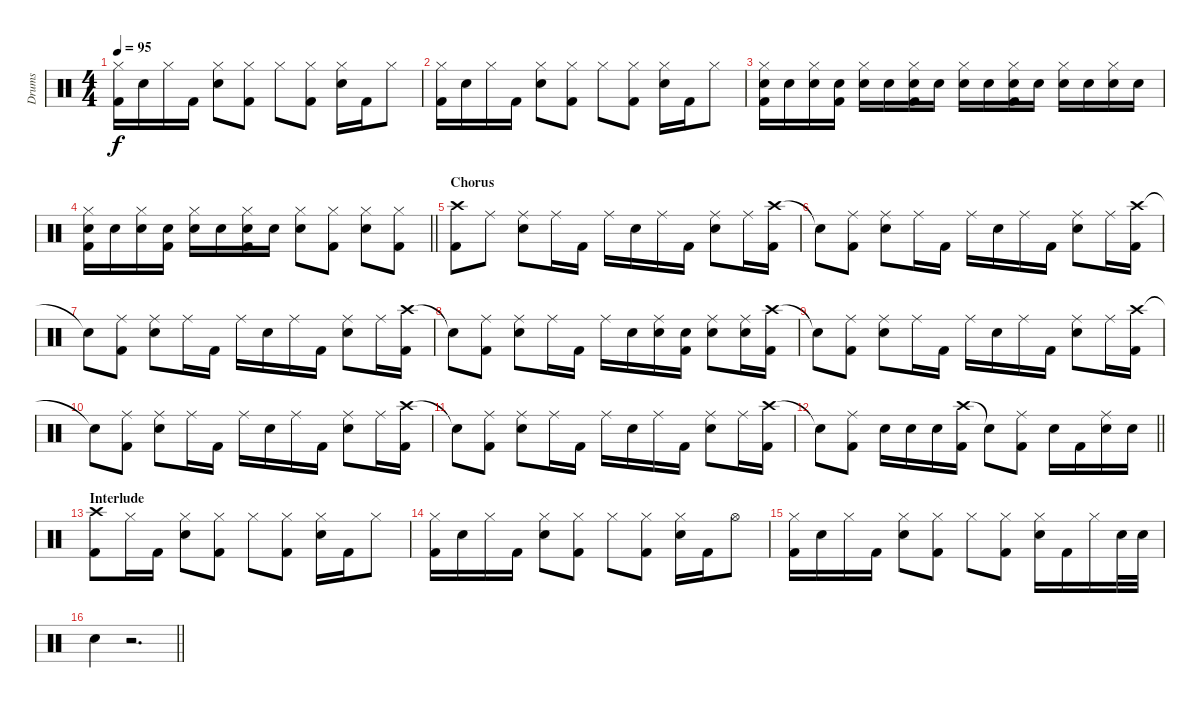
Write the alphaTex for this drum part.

\track ("Drums" "Drums") {instrument percussion}
\staff {score}
\articulation defaults
\ts (4 4)
\tempo 95
\clef neutral
\ks c
("Hi-Hat (closed)" "Kick (hit) 2").16{dy f} "Snare (hit) 2".16 "Hi-Hat (closed)".16 "Kick (hit) 2".16 ("Hi-Hat (closed)" "Snare (hit) 2").8 ("Hi-Hat (closed)" "Kick (hit) 2").8 "Hi-Hat (closed)".8 ("Hi-Hat (closed)" "Kick (hit) 2").8 ("Hi-Hat (closed)" "Snare (hit) 2").16 "Kick (hit) 2".16 "Hi-Hat (closed)".8 |
("Hi-Hat (closed)" "Kick (hit) 2").16 "Snare (hit) 2".16 "Hi-Hat (closed)".16 "Kick (hit) 2".16 ("Hi-Hat (closed)" "Snare (hit) 2").8 ("Hi-Hat (closed)" "Kick (hit) 2").8 "Hi-Hat (closed)".8 ("Hi-Hat (closed)" "Kick (hit) 2").8 ("Hi-Hat (closed)" "Snare (hit) 2").16 "Kick (hit) 2".16 "Hi-Hat (closed)".8 |
("Hi-Hat (closed)" "Snare (hit) 2" "Kick (hit) 2").16 "Snare (hit) 2".16 ("Hi-Hat (closed)" "Snare (hit) 2").16 ("Snare (hit) 2" "Kick (hit) 2").16 ("Hi-Hat (closed)" "Snare (hit) 2").16 "Snare (hit) 2".16 ("Hi-Hat (closed)" "Snare (hit) 2" "Kick (hit) 2").16 "Snare (hit) 2".16 ("Hi-Hat (closed)" "Snare (hit) 2").16 "Snare (hit) 2".16 ("Hi-Hat (closed)" "Snare (hit) 2" "Kick (hit) 2").16 "Snare (hit) 2".16 ("Hi-Hat (closed)" "Snare (hit) 2").16 "Snare (hit) 2".16 ("Hi-Hat (closed)" "Snare (hit) 2").16 "Snare (hit) 2".16 |
\barLineRight lightlight
("Hi-Hat (closed)" "Snare (hit) 2" "Kick (hit) 2").16 "Snare (hit) 2".16 ("Hi-Hat (closed)" "Snare (hit) 2").16 ("Snare (hit) 2" "Kick (hit) 2").16 ("Hi-Hat (closed)" "Snare (hit) 2").16 "Snare (hit) 2".16 ("Hi-Hat (closed)" "Snare (hit) 2" "Kick (hit) 2").16 "Snare (hit) 2".16 ("Hi-Hat (closed)" "Snare (hit) 2").8 ("Hi-Hat (closed)" "Kick (hit) 2").8 ("Hi-Hat (closed)" "Snare (hit) 2").8 ("Hi-Hat (closed)" "Kick (hit) 2").8 |
\section ("" "Chorus")
("Crash high (hit)" "Kick (hit) 2").8 "Ride (middle)".8 ("Ride (middle)" "Snare (hit) 2").8 "Ride (middle)".16 "Kick (hit) 2".16 "Ride (middle)".16 "Snare (hit) 2".16 "Ride (middle)".16 "Kick (hit) 2".16 ("Ride (middle)" "Snare (hit) 2").8 "Ride (middle)".16 ("Crash high (hit)" "Kick (hit) 2").16 |
"Snare (hit)"{t}.8 ("Ride (middle)" "Kick (hit) 2").8 ("Ride (middle)" "Snare (hit) 2").8 "Ride (middle)".16 "Kick (hit) 2".16 "Ride (middle)".16 "Snare (hit) 2".16 "Ride (middle)".16 "Kick (hit) 2".16 ("Ride (middle)" "Snare (hit) 2").8 "Ride (middle)".16 ("Crash high (hit)" "Kick (hit) 2").16 |
"Snare (hit)"{t}.8 ("Ride (middle)" "Kick (hit) 2").8 ("Ride (middle)" "Snare (hit) 2").8 "Ride (middle)".16 "Kick (hit) 2".16 "Ride (middle)".16 "Snare (hit) 2".16 "Ride (middle)".16 "Kick (hit) 2".16 ("Ride (middle)" "Snare (hit) 2").8 "Ride (middle)".16 ("Crash high (hit)" "Kick (hit) 2").16 |
"Snare (hit)"{t}.8 ("Ride (middle)" "Kick (hit) 2").8 ("Ride (middle)" "Snare (hit) 2").8 "Ride (middle)".16 "Kick (hit) 2".16 "Ride (middle)".16 "Snare (hit) 2".16 ("Ride (middle)" "Snare (hit) 2").16 ("Snare (hit) 2" "Kick (hit) 2").16 ("Ride (middle)" "Snare (hit) 2").8 ("Ride (middle)" "Snare (hit) 2").16 ("Crash high (hit)" "Kick (hit) 2").16 |
"Snare (hit)"{t}.8 ("Ride (middle)" "Kick (hit) 2").8 ("Ride (middle)" "Snare (hit) 2").8 "Ride (middle)".16 "Kick (hit) 2".16 "Ride (middle)".16 "Snare (hit) 2".16 "Ride (middle)".16 "Kick (hit) 2".16 ("Ride (middle)" "Snare (hit) 2").8 "Ride (middle)".16 ("Crash high (hit)" "Kick (hit) 2").16 |
"Snare (hit)"{t}.8 ("Ride (middle)" "Kick (hit) 2").8 ("Ride (middle)" "Snare (hit) 2").8 "Ride (middle)".16 "Kick (hit) 2".16 "Ride (middle)".16 "Snare (hit) 2".16 "Ride (middle)".16 "Kick (hit) 2".16 ("Ride (middle)" "Snare (hit) 2").8 "Ride (middle)".16 ("Crash high (hit)" "Kick (hit) 2").16 |
"Snare (hit)"{t}.8 ("Ride (middle)" "Kick (hit) 2").8 ("Ride (middle)" "Snare (hit) 2").8 "Ride (middle)".16 "Kick (hit) 2".16 "Ride (middle)".16 "Snare (hit) 2".16 "Ride (middle)".16 "Kick (hit) 2".16 ("Ride (middle)" "Snare (hit) 2").8 "Ride (middle)".16 ("Crash high (hit)" "Kick (hit) 2").16 |
\barLineRight lightlight "Snare (hit)"{t}.8
("Ride (middle)" "Kick (hit) 2").8 "Snare (hit) 2".16 "Snare (hit) 2".16 "Snare (hit) 2".16 ("Crash high (hit)" "Kick (hit) 2").16 "Snare (hit)"{t}.8 ("Ride (middle)" "Kick (hit) 2").8 "Snare (hit) 2".16 "Kick (hit) 2".16 ("Ride (middle)" "Snare (hit) 2").16 "Snare (hit) 2".16 |
\section ("" "Interlude")
("Crash high (hit)" "Kick (hit) 2").8 "Hi-Hat (closed)".16 "Kick (hit) 2".16 ("Hi-Hat (closed)" "Snare (hit) 2").8 ("Hi-Hat (closed)" "Kick (hit) 2").8 "Hi-Hat (closed)".8 ("Hi-Hat (closed)" "Kick (hit) 2").8 ("Hi-Hat (closed)" "Snare (hit) 2").16 "Kick (hit) 2".16 "Hi-Hat (closed)".8 |
("Hi-Hat (closed)" "Kick (hit) 2").16 "Snare (hit) 2".16 "Hi-Hat (closed)".16 "Kick (hit) 2".16 ("Hi-Hat (closed)" "Snare (hit) 2").8 ("Hi-Hat (closed)" "Kick (hit) 2").8 "Hi-Hat (closed)".8 ("Hi-Hat (closed)" "Kick (hit) 2").8 ("Hi-Hat (closed)" "Snare (hit) 2").16 "Kick (hit) 2".16 "Hi-Hat (open)".8 |
("Hi-Hat (closed)" "Kick (hit) 2").16 "Snare (hit) 2".16 "Hi-Hat (closed)".16 "Kick (hit) 2".16 ("Hi-Hat (closed)" "Snare (hit) 2").8 ("Hi-Hat (closed)" "Kick (hit) 2").8 "Hi-Hat (closed)".8 ("Hi-Hat (closed)" "Kick (hit) 2").8 ("Hi-Hat (closed)" "Snare (hit) 2").16 "Kick (hit) 2".16 "Hi-Hat (closed)".16 "Snare (hit) 2".32 "Snare (hit) 2".32 |
\barLineRight lightlight "Snare (hit) 2".4
r.2{d}
